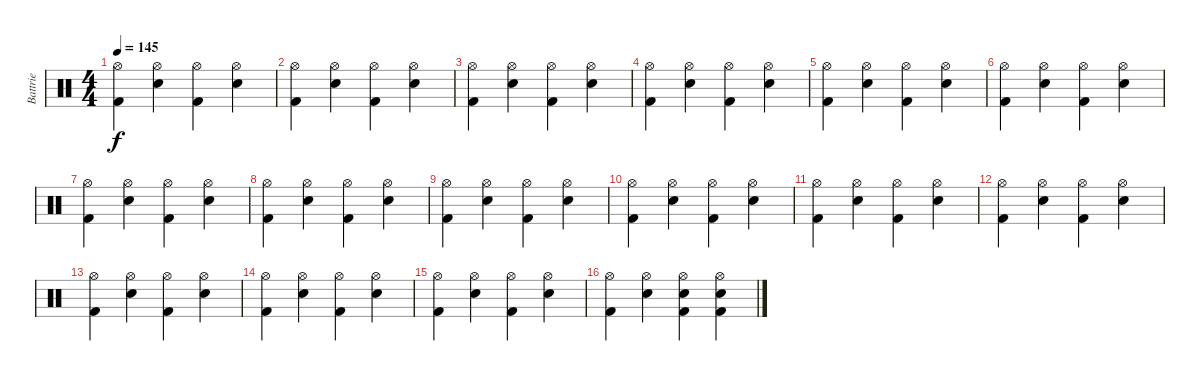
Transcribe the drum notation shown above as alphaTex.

\track ("Battrie" "Battrie") {instrument percussion}
\staff {score}
\articulation defaults
\ts (4 4)
\tempo 145
\clef neutral
\ks c
("Hi-Hat (open)" "Kick (hit) 2").4{dy f} ("Hi-Hat (open)" "Snare (hit) 2").4 ("Hi-Hat (open)" "Kick (hit) 2").4 ("Snare (hit) 2" "Hi-Hat (open)").4 |
("Hi-Hat (open)" "Kick (hit) 2").4 ("Hi-Hat (open)" "Snare (hit) 2").4 ("Hi-Hat (open)" "Kick (hit) 2").4 ("Snare (hit) 2" "Hi-Hat (open)").4 |
("Hi-Hat (open)" "Kick (hit) 2").4 ("Hi-Hat (open)" "Snare (hit) 2").4 ("Hi-Hat (open)" "Kick (hit) 2").4 ("Snare (hit) 2" "Hi-Hat (open)").4 |
("Hi-Hat (open)" "Kick (hit) 2").4 ("Hi-Hat (open)" "Snare (hit) 2").4 ("Hi-Hat (open)" "Kick (hit) 2").4 ("Snare (hit) 2" "Hi-Hat (open)").4 |
("Hi-Hat (open)" "Kick (hit) 2").4 ("Hi-Hat (open)" "Snare (hit) 2").4 ("Hi-Hat (open)" "Kick (hit) 2").4 ("Snare (hit) 2" "Hi-Hat (open)").4 |
("Hi-Hat (open)" "Kick (hit) 2").4 ("Hi-Hat (open)" "Snare (hit) 2").4 ("Hi-Hat (open)" "Kick (hit) 2").4 ("Snare (hit) 2" "Hi-Hat (open)").4 |
("Hi-Hat (open)" "Kick (hit) 2").4 ("Hi-Hat (open)" "Snare (hit) 2").4 ("Hi-Hat (open)" "Kick (hit) 2").4 ("Snare (hit) 2" "Hi-Hat (open)").4 |
("Hi-Hat (open)" "Kick (hit) 2").4 ("Hi-Hat (open)" "Snare (hit) 2").4 ("Hi-Hat (open)" "Kick (hit) 2").4 ("Snare (hit) 2" "Hi-Hat (open)").4 |
("Hi-Hat (open)" "Kick (hit) 2").4 ("Hi-Hat (open)" "Snare (hit) 2").4 ("Hi-Hat (open)" "Kick (hit) 2").4 ("Snare (hit) 2" "Hi-Hat (open)").4 |
("Hi-Hat (open)" "Kick (hit) 2").4 ("Hi-Hat (open)" "Snare (hit) 2").4 ("Hi-Hat (open)" "Kick (hit) 2").4 ("Snare (hit) 2" "Hi-Hat (open)").4 |
("Hi-Hat (open)" "Kick (hit) 2").4 ("Hi-Hat (open)" "Snare (hit) 2").4 ("Hi-Hat (open)" "Kick (hit) 2").4 ("Snare (hit) 2" "Hi-Hat (open)").4 |
("Hi-Hat (open)" "Kick (hit) 2").4 ("Hi-Hat (open)" "Snare (hit) 2").4 ("Hi-Hat (open)" "Kick (hit) 2").4 ("Snare (hit) 2" "Hi-Hat (open)").4 |
("Hi-Hat (open)" "Kick (hit) 2").4 ("Hi-Hat (open)" "Snare (hit) 2").4 ("Hi-Hat (open)" "Kick (hit) 2").4 ("Snare (hit) 2" "Hi-Hat (open)").4 |
("Hi-Hat (open)" "Kick (hit) 2").4 ("Hi-Hat (open)" "Snare (hit) 2").4 ("Hi-Hat (open)" "Kick (hit) 2").4 ("Snare (hit) 2" "Hi-Hat (open)").4 |
("Hi-Hat (open)" "Kick (hit) 2").4 ("Hi-Hat (open)" "Snare (hit) 2").4 ("Hi-Hat (open)" "Kick (hit) 2").4 ("Snare (hit) 2" "Hi-Hat (open)").4 |
("Hi-Hat (open)" "Kick (hit) 2").4 ("Hi-Hat (open)" "Snare (hit) 2").4 ("Snare (hit) 2" "Kick (hit) 2" "Hi-Hat (open)").4{volume 16} ("Snare (hit) 2" "Kick (hit) 2" "Hi-Hat (open)").4{volume 16}
